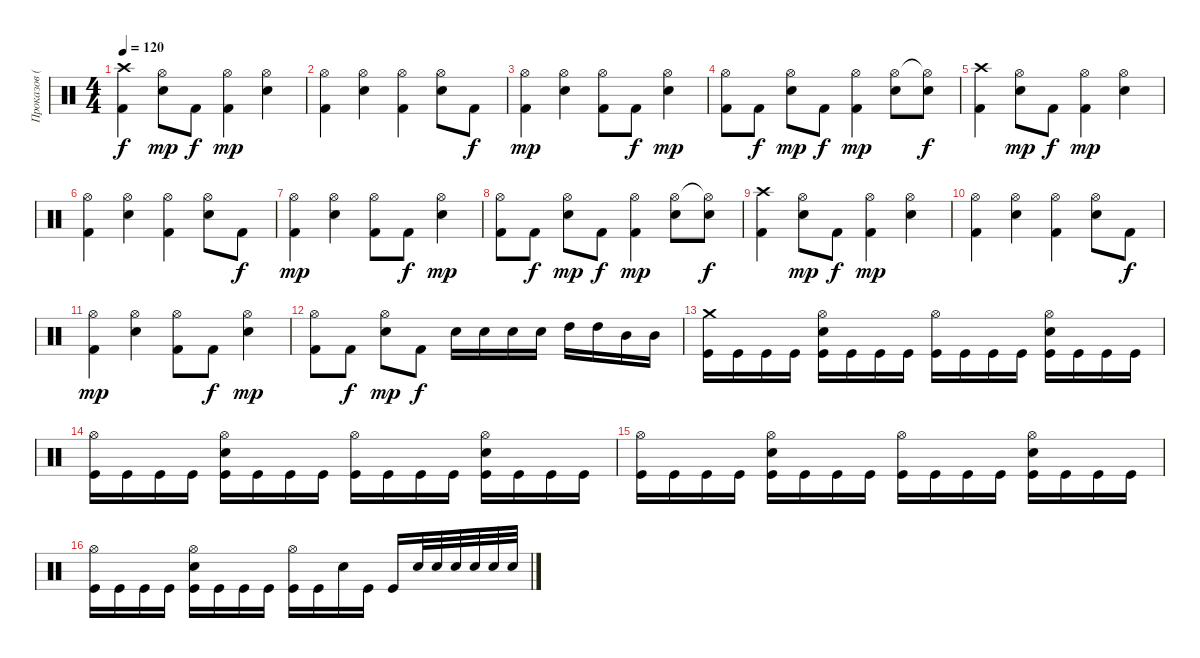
\track ("Проказов (ударные)" "Проказов (") {instrument percussion}
\staff {score}
\articulation defaults
\ts (4 4)
\tempo 120
\clef neutral
\ks c
("Crash high (hit)" "Kick (hit) 2").4{dy f} ("Hi-Hat (open)" "Snare (hit) 2").8{dy mp} "Kick (hit) 2".8{dy f} ("Hi-Hat (open)" "Kick (hit) 2").4{dy mp} ("Hi-Hat (open)" "Snare (hit) 2").4 |
("Hi-Hat (open)" "Kick (hit) 2").4 ("Hi-Hat (open)" "Snare (hit) 2").4 ("Hi-Hat (open)" "Kick (hit) 2").4 ("Hi-Hat (open)" "Snare (hit) 2").8 "Kick (hit) 2".8{dy f} |
("Hi-Hat (open)" "Kick (hit) 2").4{dy mp} ("Hi-Hat (open)" "Snare (hit) 2").4 ("Hi-Hat (open)" "Kick (hit) 2").8 "Kick (hit) 2".8{dy f} ("Hi-Hat (open)" "Snare (hit) 2").4{dy mp} |
("Hi-Hat (open)" "Kick (hit) 2").8 "Kick (hit) 2".8{dy f} ("Hi-Hat (open)" "Snare (hit) 2").8{dy mp} "Kick (hit) 2".8{dy f} ("Hi-Hat (open)" "Kick (hit) 2").4{dy mp} ("Hi-Hat (open)" "Snare (hit) 2").8 ("Hi-Hat (open)"{t} "Snare (hit) 2").8{dy f} |
("Crash high (hit)" "Kick (hit) 2").4 ("Hi-Hat (open)" "Snare (hit) 2").8{dy mp} "Kick (hit) 2".8{dy f} ("Hi-Hat (open)" "Kick (hit) 2").4{dy mp} ("Hi-Hat (open)" "Snare (hit) 2").4 |
("Hi-Hat (open)" "Kick (hit) 2").4 ("Hi-Hat (open)" "Snare (hit) 2").4 ("Hi-Hat (open)" "Kick (hit) 2").4 ("Hi-Hat (open)" "Snare (hit) 2").8 "Kick (hit) 2".8{dy f} |
("Hi-Hat (open)" "Kick (hit) 2").4{dy mp} ("Hi-Hat (open)" "Snare (hit) 2").4 ("Hi-Hat (open)" "Kick (hit) 2").8 "Kick (hit) 2".8{dy f} ("Hi-Hat (open)" "Snare (hit) 2").4{dy mp} |
("Hi-Hat (open)" "Kick (hit) 2").8 "Kick (hit) 2".8{dy f} ("Hi-Hat (open)" "Snare (hit) 2").8{dy mp} "Kick (hit) 2".8{dy f} ("Hi-Hat (open)" "Kick (hit) 2").4{dy mp} ("Hi-Hat (open)" "Snare (hit) 2").8 ("Hi-Hat (open)"{t} "Snare (hit) 2").8{dy f} |
("Crash high (hit)" "Kick (hit) 2").4 ("Hi-Hat (open)" "Snare (hit) 2").8{dy mp} "Kick (hit) 2".8{dy f} ("Hi-Hat (open)" "Kick (hit) 2").4{dy mp} ("Hi-Hat (open)" "Snare (hit) 2").4 |
("Hi-Hat (open)" "Kick (hit) 2").4 ("Hi-Hat (open)" "Snare (hit) 2").4 ("Hi-Hat (open)" "Kick (hit) 2").4 ("Hi-Hat (open)" "Snare (hit) 2").8 "Kick (hit) 2".8{dy f} |
("Hi-Hat (open)" "Kick (hit) 2").4{dy mp} ("Hi-Hat (open)" "Snare (hit) 2").4 ("Hi-Hat (open)" "Kick (hit) 2").8 "Kick (hit) 2".8{dy f} ("Hi-Hat (open)" "Snare (hit) 2").4{dy mp} |
("Hi-Hat (open)" "Kick (hit) 2").8 "Kick (hit) 2".8{dy f} ("Hi-Hat (open)" "Snare (hit) 2").8{dy mp} "Kick (hit) 2".8{dy f} "Snare (hit) 2".16 "Snare (hit) 2".16 "Snare (hit) 2".16 "Snare (hit) 2".16 "High Tom (hit)".16 "High Tom (hit)".16 "Mid Tom (hit)".16 "Mid Tom (hit)".16 |
("Kick (hit)" "Crash medium (hit)").16 "Kick (hit)".16 "Kick (hit)".16 "Kick (hit)".16 ("Kick (hit)" "Snare (hit) 2" "Hi-Hat (open)").16 "Kick (hit)".16 "Kick (hit)".16 "Kick (hit)".16 ("Kick (hit)" "Hi-Hat (open)").16 "Kick (hit)".16 "Kick (hit)".16 "Kick (hit)".16 ("Kick (hit)" "Snare (hit) 2" "Hi-Hat (open)").16 "Kick (hit)".16 "Kick (hit)".16 "Kick (hit)".16 |
("Kick (hit)" "Hi-Hat (open)").16 "Kick (hit)".16 "Kick (hit)".16 "Kick (hit)".16 ("Kick (hit)" "Snare (hit) 2" "Hi-Hat (open)").16 "Kick (hit)".16 "Kick (hit)".16 "Kick (hit)".16 ("Kick (hit)" "Hi-Hat (open)").16 "Kick (hit)".16 "Kick (hit)".16 "Kick (hit)".16 ("Kick (hit)" "Snare (hit) 2" "Hi-Hat (open)").16 "Kick (hit)".16 "Kick (hit)".16 "Kick (hit)".16 |
("Kick (hit)" "Hi-Hat (open)").16 "Kick (hit)".16 "Kick (hit)".16 "Kick (hit)".16 ("Kick (hit)" "Snare (hit) 2" "Hi-Hat (open)").16 "Kick (hit)".16 "Kick (hit)".16 "Kick (hit)".16 ("Kick (hit)" "Hi-Hat (open)").16 "Kick (hit)".16 "Kick (hit)".16 "Kick (hit)".16 ("Kick (hit)" "Snare (hit) 2" "Hi-Hat (open)").16 "Kick (hit)".16 "Kick (hit)".16 "Kick (hit)".16 |
("Kick (hit)" "Hi-Hat (open)").16 "Kick (hit)".16 "Kick (hit)".16 "Kick (hit)".16 ("Kick (hit)" "Snare (hit) 2" "Hi-Hat (open)").16 "Kick (hit)".16 "Kick (hit)".16 "Kick (hit)".16 ("Kick (hit)" "Hi-Hat (open)").16 "Kick (hit)".16 "Snare (hit) 2".16 "Kick (hit)".16 "Kick (hit)".16 "Electric Snare (hit)".32 "Electric Snare (hit)".32 "Electric Snare (hit)".32 "Electric Snare (hit)".32 "Electric Snare (hit)".32 "Electric Snare (hit)".32
